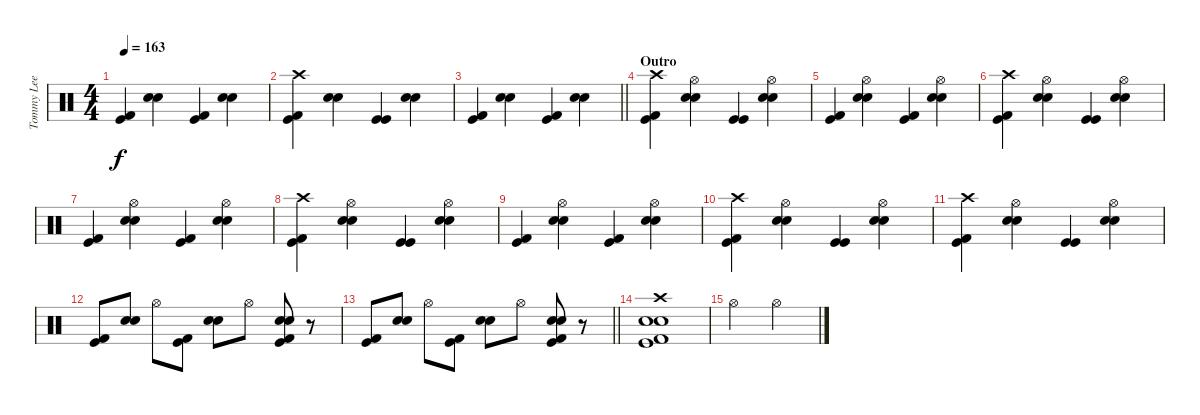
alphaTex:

\track ("Tommy Lee" "Tommy Lee") {instrument percussion}
\staff {score}
\articulation defaults
\ts (4 4)
\tempo 163
\clef neutral
\ks c
("Kick (hit) 2" "Kick (hit)").4{dy f} ("Electric Snare (hit)" "Snare (hit) 2").4 ("Kick (hit) 2" "Kick (hit)").4 ("Electric Snare (hit)" "Snare (hit) 2").4 |
("Crash high (hit)" "Kick (hit) 2" "Kick (hit)").4 ("Electric Snare (hit)" "Snare (hit) 2").4 ("Kick (hit)" "Kick (hit)").4 ("Electric Snare (hit)" "Snare (hit) 2").4 |
\barLineRight lightlight
("Kick (hit) 2" "Kick (hit)").4 ("Electric Snare (hit)" "Snare (hit) 2").4 ("Kick (hit) 2" "Kick (hit)").4 ("Electric Snare (hit)" "Snare (hit) 2").4 |
\section ("" "Outro")
("Crash high (hit)" "Kick (hit) 2" "Kick (hit)").4 ("Hi-Hat (open)" "Electric Snare (hit)" "Snare (hit) 2").4 ("Kick (hit)" "Kick (hit)").4 ("Hi-Hat (open)" "Electric Snare (hit)" "Snare (hit) 2").4 |
("Kick (hit) 2" "Kick (hit)").4 ("Hi-Hat (open)" "Electric Snare (hit)" "Snare (hit) 2").4 ("Kick (hit) 2" "Kick (hit)").4 ("Hi-Hat (open)" "Electric Snare (hit)" "Snare (hit) 2").4 |
("Crash high (hit)" "Kick (hit) 2" "Kick (hit)").4 ("Hi-Hat (open)" "Electric Snare (hit)" "Snare (hit) 2").4 ("Kick (hit)" "Kick (hit)").4 ("Hi-Hat (open)" "Electric Snare (hit)" "Snare (hit) 2").4 |
("Kick (hit) 2" "Kick (hit)").4 ("Hi-Hat (open)" "Electric Snare (hit)" "Snare (hit) 2").4 ("Kick (hit) 2" "Kick (hit)").4 ("Hi-Hat (open)" "Electric Snare (hit)" "Snare (hit) 2").4 |
("Crash high (hit)" "Kick (hit) 2" "Kick (hit)").4 ("Hi-Hat (open)" "Electric Snare (hit)" "Snare (hit) 2").4 ("Kick (hit)" "Kick (hit)").4 ("Hi-Hat (open)" "Electric Snare (hit)" "Snare (hit) 2").4 |
("Kick (hit) 2" "Kick (hit)").4 ("Hi-Hat (open)" "Electric Snare (hit)" "Snare (hit) 2").4 ("Kick (hit) 2" "Kick (hit)").4 ("Hi-Hat (open)" "Electric Snare (hit)" "Snare (hit) 2").4 |
("Crash high (hit)" "Kick (hit) 2" "Kick (hit)").4 ("Hi-Hat (open)" "Electric Snare (hit)" "Snare (hit) 2").4 ("Kick (hit)" "Kick (hit)").4 ("Hi-Hat (open)" "Electric Snare (hit)" "Snare (hit) 2").4 |
("Crash high (hit)" "Kick (hit) 2" "Kick (hit)").4 ("Hi-Hat (open)" "Electric Snare (hit)" "Snare (hit) 2").4 ("Kick (hit)" "Kick (hit)").4 ("Hi-Hat (open)" "Electric Snare (hit)" "Snare (hit) 2").4 |
("Kick (hit) 2" "Kick (hit)").8 ("Electric Snare (hit)" "Snare (hit) 2").8 "Hi-Hat (open)".8 ("Kick (hit) 2" "Kick (hit)").8 ("Electric Snare (hit)" "Snare (hit) 2").8 "Hi-Hat (open)".8 ("Electric Snare (hit)" "Snare (hit) 2" "Kick (hit) 2" "Kick (hit)").8 r.8 |
\barLineRight lightlight
("Kick (hit) 2" "Kick (hit)").8 ("Electric Snare (hit)" "Snare (hit) 2").8 "Hi-Hat (open)".8 ("Kick (hit) 2" "Kick (hit)").8 ("Electric Snare (hit)" "Snare (hit) 2").8 "Hi-Hat (open)".8 ("Electric Snare (hit)" "Snare (hit) 2" "Kick (hit) 2" "Kick (hit)").8 r.8 |
("Crash high (hit)" "Electric Snare (hit)" "Snare (hit) 2" "Kick (hit) 2" "Kick (hit)").1 |
"Hi-Hat (open)".2 "Hi-Hat (open)".2
